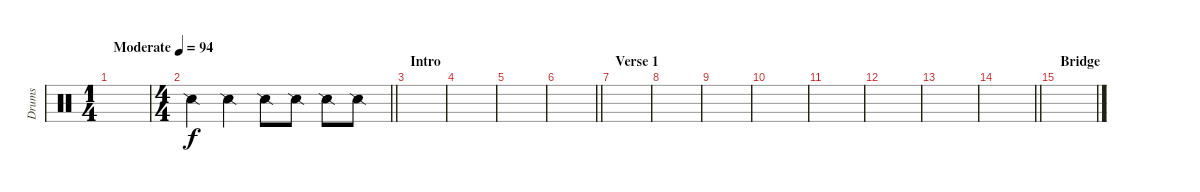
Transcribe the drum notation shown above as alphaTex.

\track ("Drums" "Drums") {instrument percussion}
\staff {score}
\articulation defaults
\ts (1 4)
\tempo (94 "Moderate")
\clef neutral
\ks c
|
\ts (4 4)
\barLineRight lightlight "Snare (side stick) 2".4 "Snare (side stick) 2".4 "Snare (side stick) 2".8 "Snare (side stick) 2".8 "Snare (side stick) 2".8 "Snare (side stick) 2".8
|
\section ("" "Intro")
|
|
|
\barLineRight lightlight
|
\section ("" "Verse 1")
|
|
|
|
|
|
|
\barLineRight lightlight
|
\section ("" "Bridge")
